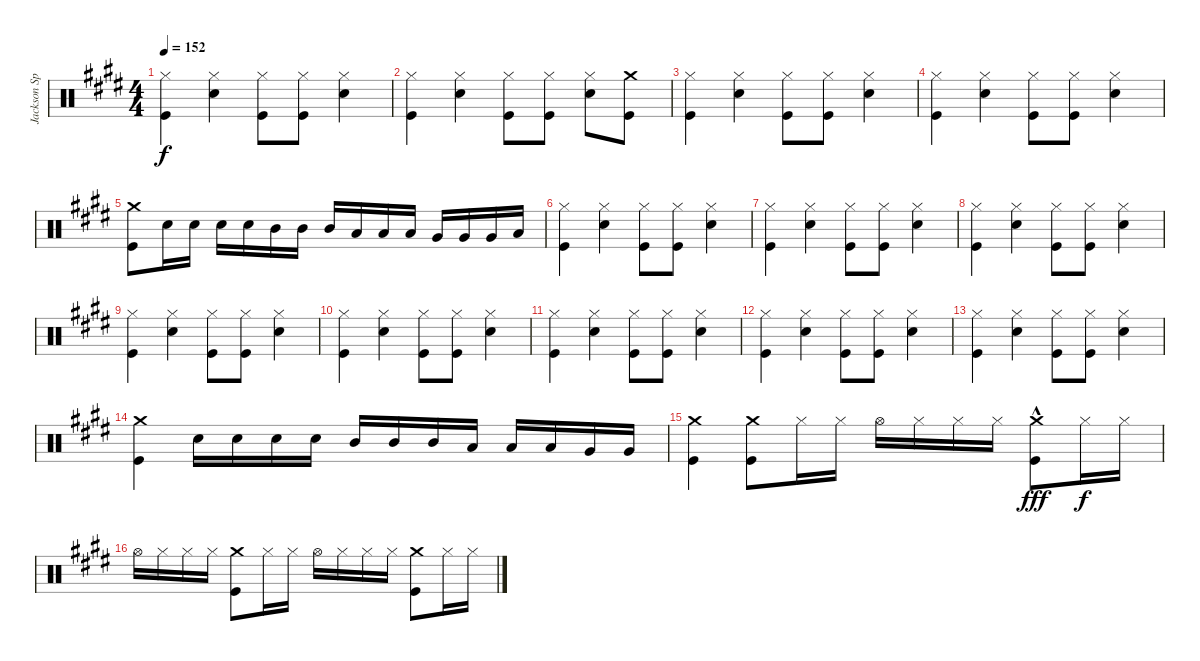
\track ("Jackson Spiers Drums" "Jackson Sp") {instrument percussion}
\staff {score}
\articulation defaults
\ts (4 4)
\tempo 152
\clef neutral
\ks c#minor
("Hi-Hat (closed)" "Kick (hit)").4{dy f} ("Hi-Hat (closed)" "Snare (hit) 2").4 ("Hi-Hat (closed)" "Kick (hit)").8 ("Hi-Hat (closed)" "Kick (hit)").8 ("Hi-Hat (closed)" "Snare (hit) 2").4 |
("Hi-Hat (closed)" "Kick (hit)").4 ("Hi-Hat (closed)" "Snare (hit) 2").4 ("Hi-Hat (closed)" "Kick (hit)").8 ("Hi-Hat (closed)" "Kick (hit)").8 ("Hi-Hat (closed)" "Snare (hit) 2").8 ("Crash medium (hit)" "Kick (hit)").8 |
("Hi-Hat (closed)" "Kick (hit)").4 ("Hi-Hat (closed)" "Snare (hit) 2").4 ("Hi-Hat (closed)" "Kick (hit)").8 ("Hi-Hat (closed)" "Kick (hit)").8 ("Hi-Hat (closed)" "Snare (hit) 2").4 |
("Hi-Hat (closed)" "Kick (hit)").4 ("Hi-Hat (closed)" "Snare (hit) 2").4 ("Hi-Hat (closed)" "Kick (hit)").8 ("Hi-Hat (closed)" "Kick (hit)").8 ("Hi-Hat (closed)" "Snare (hit) 2").4 |
("Crash medium (hit)" "Kick (hit)").8 "Snare (hit) 2".16 "Snare (hit) 2".16 "Snare (hit) 2".16 "Snare (hit) 2".16 "Mid Tom (hit)".16 "Mid Tom (hit)".16 "Mid Tom (hit)".16 "Low Tom (hit)".16 "Low Tom (hit)".16 "Low Tom (hit)".16 "Very Low Tom (hit)".16 "Very Low Tom (hit)".16 "Very Low Tom (hit)".16 "Low Floor Tom (hit)".16 |
("Hi-Hat (closed)" "Kick (hit)").4 ("Hi-Hat (closed)" "Snare (hit) 2").4 ("Hi-Hat (closed)" "Kick (hit)").8 ("Hi-Hat (closed)" "Kick (hit)").8 ("Hi-Hat (closed)" "Snare (hit) 2").4 |
("Hi-Hat (closed)" "Kick (hit)").4 ("Hi-Hat (closed)" "Snare (hit) 2").4 ("Hi-Hat (closed)" "Kick (hit)").8 ("Hi-Hat (closed)" "Kick (hit)").8 ("Hi-Hat (closed)" "Snare (hit) 2").4 |
("Hi-Hat (closed)" "Kick (hit)").4 ("Hi-Hat (closed)" "Snare (hit) 2").4 ("Hi-Hat (closed)" "Kick (hit)").8 ("Hi-Hat (closed)" "Kick (hit)").8 ("Hi-Hat (closed)" "Snare (hit) 2").4 |
("Hi-Hat (closed)" "Kick (hit)").4 ("Hi-Hat (closed)" "Snare (hit) 2").4 ("Hi-Hat (closed)" "Kick (hit)").8 ("Hi-Hat (closed)" "Kick (hit)").8 ("Hi-Hat (closed)" "Snare (hit) 2").4 |
("Hi-Hat (closed)" "Kick (hit)").4 ("Hi-Hat (closed)" "Snare (hit) 2").4 ("Hi-Hat (closed)" "Kick (hit)").8 ("Hi-Hat (closed)" "Kick (hit)").8 ("Hi-Hat (closed)" "Snare (hit) 2").4 |
("Hi-Hat (closed)" "Kick (hit)").4 ("Hi-Hat (closed)" "Snare (hit) 2").4 ("Hi-Hat (closed)" "Kick (hit)").8 ("Hi-Hat (closed)" "Kick (hit)").8 ("Hi-Hat (closed)" "Snare (hit) 2").4 |
("Hi-Hat (closed)" "Kick (hit)").4 ("Hi-Hat (closed)" "Snare (hit) 2").4 ("Hi-Hat (closed)" "Kick (hit)").8 ("Hi-Hat (closed)" "Kick (hit)").8 ("Hi-Hat (closed)" "Snare (hit) 2").4 |
("Hi-Hat (closed)" "Kick (hit)").4 ("Hi-Hat (closed)" "Snare (hit) 2").4 ("Hi-Hat (closed)" "Kick (hit)").8 ("Hi-Hat (closed)" "Kick (hit)").8 ("Hi-Hat (closed)" "Snare (hit) 2").4 |
("Crash medium (hit)" "Kick (hit)").4 "Snare (hit) 2".16 "Snare (hit) 2".16 "Snare (hit) 2".16 "Snare (hit) 2".16 "Mid Tom (hit)".16 "Mid Tom (hit)".16 "Mid Tom (hit)".16 "Low Tom (hit)".16 "Low Tom (hit)".16 "Low Tom (hit)".16 "Very Low Tom (hit)".16 "Very Low Tom (hit)".16 |
("Crash medium (hit)" "Kick (hit)").4 ("Crash medium (hit)" "Kick (hit)").8 "Hi-Hat (closed)".16 "Hi-Hat (closed)".16 "Hi-Hat (open)".16 "Hi-Hat (closed)".16 "Hi-Hat (closed)".16 "Hi-Hat (closed)".16 ("Crash medium (hit)" "Kick (hit)"{hac}).8{dy fff} "Hi-Hat (closed)".16{dy f} "Hi-Hat (closed)".16 |
"Hi-Hat (open)".16 "Hi-Hat (closed)".16 "Hi-Hat (closed)".16 "Hi-Hat (closed)".16 ("Crash medium (hit)" "Kick (hit)").8 "Hi-Hat (closed)".16 "Hi-Hat (closed)".16 "Hi-Hat (open)".16 "Hi-Hat (closed)".16 "Hi-Hat (closed)".16 "Hi-Hat (closed)".16 ("Crash medium (hit)" "Kick (hit)").8 "Hi-Hat (closed)".16 "Hi-Hat (closed)".16
